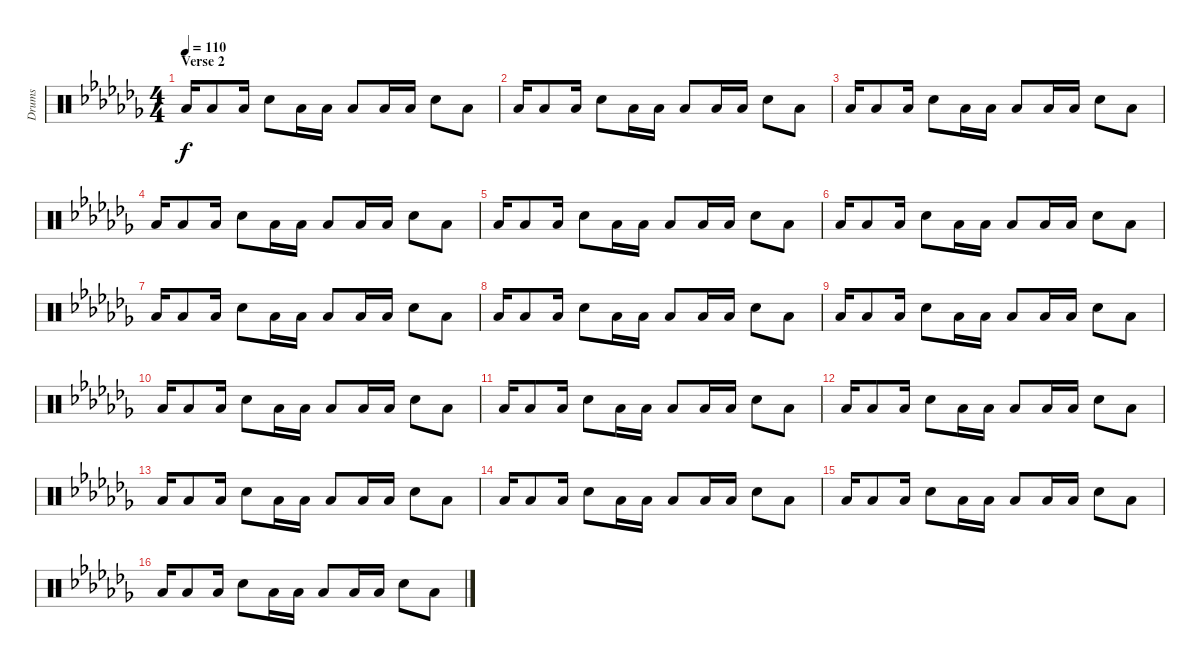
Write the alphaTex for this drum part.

\track ("Drums" "Drums") {instrument percussion}
\staff {score}
\articulation defaults
\ts (4 4)
\section ("" "Verse 2")
\tempo 110
\clef neutral
\ks abminor "Low Tom (hit)".16{dy f volume 14} "Low Tom (hit)".8 "Low Tom (hit)".16 "Snare (hit) 2".8 "Low Tom (hit)".16 "Low Tom (hit)".16 "Low Tom (hit)".8 "Low Tom (hit)".16 "Low Tom (hit)".16 "Snare (hit) 2".8 "Low Tom (hit)".8
|
"Low Tom (hit)".16 "Low Tom (hit)".8 "Low Tom (hit)".16 "Snare (hit) 2".8 "Low Tom (hit)".16 "Low Tom (hit)".16 "Low Tom (hit)".8 "Low Tom (hit)".16 "Low Tom (hit)".16 "Snare (hit) 2".8 "Low Tom (hit)".8 |
"Low Tom (hit)".16 "Low Tom (hit)".8 "Low Tom (hit)".16 "Snare (hit) 2".8 "Low Tom (hit)".16 "Low Tom (hit)".16 "Low Tom (hit)".8 "Low Tom (hit)".16 "Low Tom (hit)".16 "Snare (hit) 2".8 "Low Tom (hit)".8 |
"Low Tom (hit)".16 "Low Tom (hit)".8 "Low Tom (hit)".16 "Snare (hit) 2".8 "Low Tom (hit)".16 "Low Tom (hit)".16 "Low Tom (hit)".8 "Low Tom (hit)".16 "Low Tom (hit)".16 "Snare (hit) 2".8 "Low Tom (hit)".8 |
"Low Tom (hit)".16 "Low Tom (hit)".8 "Low Tom (hit)".16 "Snare (hit) 2".8 "Low Tom (hit)".16 "Low Tom (hit)".16 "Low Tom (hit)".8 "Low Tom (hit)".16 "Low Tom (hit)".16 "Snare (hit) 2".8 "Low Tom (hit)".8 |
"Low Tom (hit)".16 "Low Tom (hit)".8 "Low Tom (hit)".16 "Snare (hit) 2".8 "Low Tom (hit)".16 "Low Tom (hit)".16 "Low Tom (hit)".8 "Low Tom (hit)".16 "Low Tom (hit)".16 "Snare (hit) 2".8 "Low Tom (hit)".8 |
"Low Tom (hit)".16 "Low Tom (hit)".8 "Low Tom (hit)".16 "Snare (hit) 2".8 "Low Tom (hit)".16 "Low Tom (hit)".16 "Low Tom (hit)".8 "Low Tom (hit)".16 "Low Tom (hit)".16 "Snare (hit) 2".8 "Low Tom (hit)".8 |
"Low Tom (hit)".16 "Low Tom (hit)".8 "Low Tom (hit)".16 "Snare (hit) 2".8 "Low Tom (hit)".16 "Low Tom (hit)".16 "Low Tom (hit)".8 "Low Tom (hit)".16 "Low Tom (hit)".16 "Snare (hit) 2".8 "Low Tom (hit)".8 |
"Low Tom (hit)".16 "Low Tom (hit)".8 "Low Tom (hit)".16 "Snare (hit) 2".8 "Low Tom (hit)".16 "Low Tom (hit)".16 "Low Tom (hit)".8 "Low Tom (hit)".16 "Low Tom (hit)".16 "Snare (hit) 2".8 "Low Tom (hit)".8 |
"Low Tom (hit)".16 "Low Tom (hit)".8 "Low Tom (hit)".16 "Snare (hit) 2".8 "Low Tom (hit)".16 "Low Tom (hit)".16 "Low Tom (hit)".8 "Low Tom (hit)".16 "Low Tom (hit)".16 "Snare (hit) 2".8 "Low Tom (hit)".8 |
"Low Tom (hit)".16 "Low Tom (hit)".8 "Low Tom (hit)".16 "Snare (hit) 2".8 "Low Tom (hit)".16 "Low Tom (hit)".16 "Low Tom (hit)".8 "Low Tom (hit)".16 "Low Tom (hit)".16 "Snare (hit) 2".8 "Low Tom (hit)".8 |
"Low Tom (hit)".16 "Low Tom (hit)".8 "Low Tom (hit)".16 "Snare (hit) 2".8 "Low Tom (hit)".16 "Low Tom (hit)".16 "Low Tom (hit)".8 "Low Tom (hit)".16 "Low Tom (hit)".16 "Snare (hit) 2".8 "Low Tom (hit)".8 |
"Low Tom (hit)".16 "Low Tom (hit)".8 "Low Tom (hit)".16 "Snare (hit) 2".8 "Low Tom (hit)".16 "Low Tom (hit)".16 "Low Tom (hit)".8 "Low Tom (hit)".16 "Low Tom (hit)".16 "Snare (hit) 2".8 "Low Tom (hit)".8 |
"Low Tom (hit)".16 "Low Tom (hit)".8 "Low Tom (hit)".16 "Snare (hit) 2".8 "Low Tom (hit)".16 "Low Tom (hit)".16 "Low Tom (hit)".8 "Low Tom (hit)".16 "Low Tom (hit)".16 "Snare (hit) 2".8 "Low Tom (hit)".8 |
"Low Tom (hit)".16 "Low Tom (hit)".8 "Low Tom (hit)".16 "Snare (hit) 2".8 "Low Tom (hit)".16 "Low Tom (hit)".16 "Low Tom (hit)".8 "Low Tom (hit)".16 "Low Tom (hit)".16 "Snare (hit) 2".8 "Low Tom (hit)".8 |
"Low Tom (hit)".16 "Low Tom (hit)".8 "Low Tom (hit)".16 "Snare (hit) 2".8 "Low Tom (hit)".16 "Low Tom (hit)".16 "Low Tom (hit)".8 "Low Tom (hit)".16 "Low Tom (hit)".16 "Snare (hit) 2".8 "Low Tom (hit)".8
